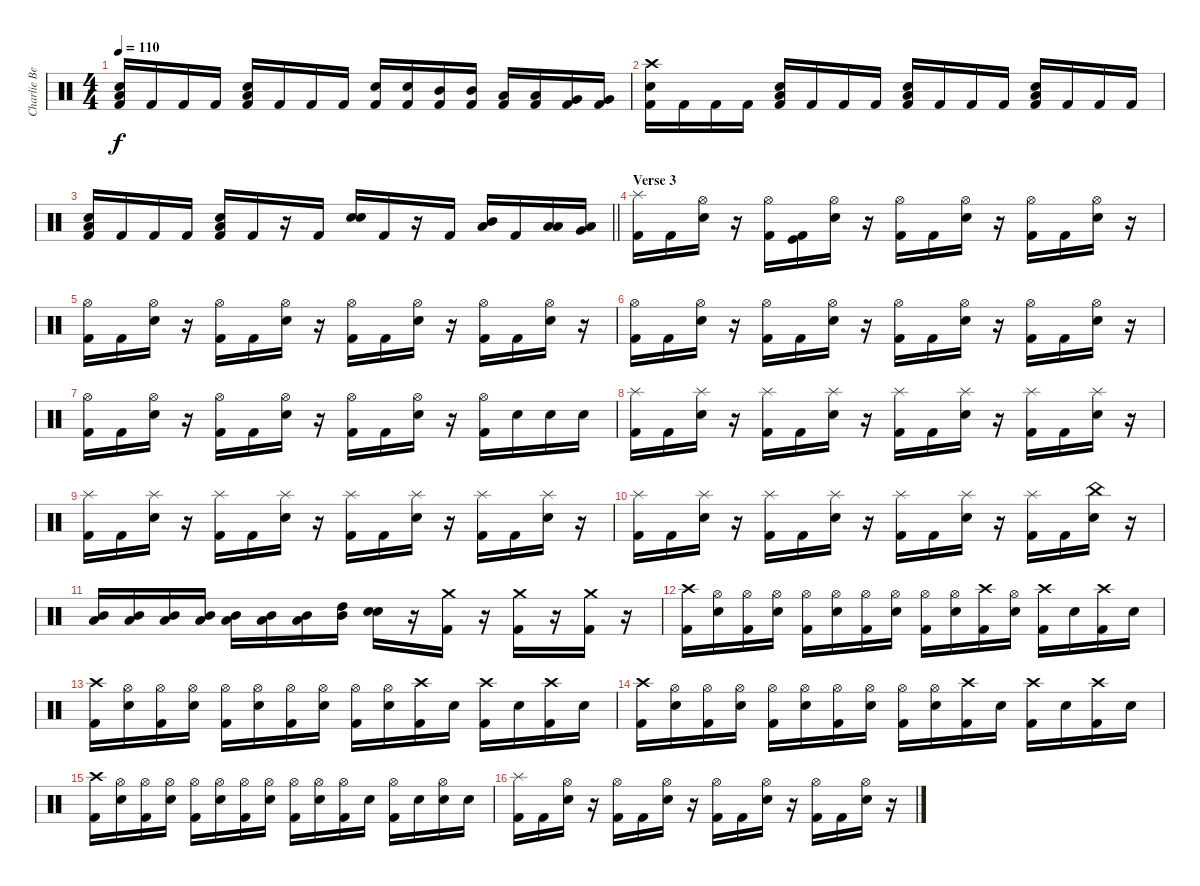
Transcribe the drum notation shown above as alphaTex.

\track ("Charlie Benante" "Charlie Be") {instrument percussion}
\staff {score}
\articulation defaults
\ts (4 4)
\tempo 110
\clef neutral
\ks c
("Low Floor Tom (hit)" "Electric Snare (hit)" "Kick (hit) 2").16{dy f} "Kick (hit) 2".16 "Kick (hit) 2".16 "Kick (hit) 2".16 ("Low Floor Tom (hit)" "Electric Snare (hit)" "Kick (hit) 2").16 "Kick (hit) 2".16 "Kick (hit) 2".16 "Kick (hit) 2".16 ("Electric Snare (hit)" "Kick (hit) 2").16 ("Electric Snare (hit)" "Kick (hit) 2").16 ("Mid Tom (hit)" "Kick (hit) 2").16 ("Mid Tom (hit)" "Kick (hit) 2").16 ("Low Tom (hit)" "Kick (hit) 2").16 ("Low Tom (hit)" "Kick (hit) 2").16 ("Very Low Tom (hit)" "Kick (hit) 2").16 ("Very Low Tom (hit)" "Kick (hit) 2").16 |
("Crash high (hit)" "Electric Snare (hit)" "Kick (hit) 2").16 "Kick (hit) 2".16 "Kick (hit) 2".16 "Kick (hit) 2".16 ("Low Floor Tom (hit)" "Electric Snare (hit)" "Kick (hit) 2").16 "Kick (hit) 2".16 "Kick (hit) 2".16 "Kick (hit) 2".16 ("Low Floor Tom (hit)" "Electric Snare (hit)" "Kick (hit) 2").16 "Kick (hit) 2".16 "Kick (hit) 2".16 "Kick (hit) 2".16 ("Low Floor Tom (hit)" "Electric Snare (hit)" "Kick (hit) 2").16 "Kick (hit) 2".16 "Kick (hit) 2".16 "Kick (hit) 2".16 |
\barLineRight lightlight
("Low Floor Tom (hit)" "Electric Snare (hit)" "Kick (hit) 2").16 "Kick (hit) 2".16 "Kick (hit) 2".16 "Kick (hit) 2".16 ("Low Floor Tom (hit)" "Electric Snare (hit)" "Kick (hit) 2").16 "Kick (hit) 2".16 r.16 "Kick (hit) 2".16 ("Electric Snare (hit)" "Snare (hit) 2").16 "Kick (hit) 2".16 r.16 "Kick (hit) 2".16 ("Mid Tom (hit)" "Low Floor Tom (hit)").16 "Kick (hit) 2".16 ("Low Tom (hit)" "Low Floor Tom (hit)").16 ("Low Floor Tom (hit)" "Very Low Tom (hit)").16 |
\section ("" "Verse 3")
("Splash (hit)" "Kick (hit) 2").16 "Kick (hit) 2".16 ("Hi-Hat (open)" "Electric Snare (hit)").16 r.16 ("Hi-Hat (open)" "Kick (hit) 2").16 ("Kick (hit)" "Kick (hit) 2").16 ("Hi-Hat (open)" "Electric Snare (hit)").16 r.16 ("Hi-Hat (open)" "Kick (hit) 2").16 "Kick (hit) 2".16 ("Hi-Hat (open)" "Electric Snare (hit)").16 r.16 ("Hi-Hat (open)" "Kick (hit) 2").16 "Kick (hit) 2".16 ("Hi-Hat (open)" "Electric Snare (hit)").16 r.16 |
("Hi-Hat (open)" "Kick (hit) 2").16 "Kick (hit) 2".16 ("Hi-Hat (open)" "Electric Snare (hit)").16 r.16 ("Hi-Hat (open)" "Kick (hit) 2").16 "Kick (hit) 2".16 ("Hi-Hat (open)" "Electric Snare (hit)").16 r.16 ("Hi-Hat (open)" "Kick (hit) 2").16 "Kick (hit) 2".16 ("Hi-Hat (open)" "Electric Snare (hit)").16 r.16 ("Hi-Hat (open)" "Kick (hit) 2").16 "Kick (hit) 2".16 ("Hi-Hat (open)" "Electric Snare (hit)").16 r.16 |
("Hi-Hat (open)" "Kick (hit) 2").16 "Kick (hit) 2".16 ("Hi-Hat (open)" "Electric Snare (hit)").16 r.16 ("Hi-Hat (open)" "Kick (hit) 2").16 "Kick (hit) 2".16 ("Hi-Hat (open)" "Electric Snare (hit)").16 r.16 ("Hi-Hat (open)" "Kick (hit) 2").16 "Kick (hit) 2".16 ("Hi-Hat (open)" "Electric Snare (hit)").16 r.16 ("Hi-Hat (open)" "Kick (hit) 2").16 "Kick (hit) 2".16 ("Hi-Hat (open)" "Electric Snare (hit)").16 r.16 |
("Hi-Hat (open)" "Kick (hit) 2").16 "Kick (hit) 2".16 ("Hi-Hat (open)" "Electric Snare (hit)").16 r.16 ("Hi-Hat (open)" "Kick (hit) 2").16 "Kick (hit) 2".16 ("Hi-Hat (open)" "Electric Snare (hit)").16 r.16 ("Hi-Hat (open)" "Kick (hit) 2").16 "Kick (hit) 2".16 ("Hi-Hat (open)" "Electric Snare (hit)").16 r.16 ("Hi-Hat (open)" "Kick (hit) 2").16 "Electric Snare (hit)".16 "Snare (hit) 2".16 "Electric Snare (hit)".16 |
("Splash (hit)" "Kick (hit) 2").16 "Kick (hit) 2".16 ("Splash (hit)" "Electric Snare (hit)").16 r.16 ("Splash (hit)" "Kick (hit) 2").16 "Kick (hit) 2".16 ("Splash (hit)" "Electric Snare (hit)").16 r.16 ("Splash (hit)" "Kick (hit) 2").16 "Kick (hit) 2".16 ("Splash (hit)" "Electric Snare (hit)").16 r.16 ("Splash (hit)" "Kick (hit) 2").16 "Kick (hit) 2".16 ("Splash (hit)" "Electric Snare (hit)").16 r.16 |
("Splash (hit)" "Kick (hit) 2").16 "Kick (hit) 2".16 ("Splash (hit)" "Electric Snare (hit)").16 r.16 ("Splash (hit)" "Kick (hit) 2").16 "Kick (hit) 2".16 ("Splash (hit)" "Electric Snare (hit)").16 r.16 ("Splash (hit)" "Kick (hit) 2").16 "Kick (hit) 2".16 ("Splash (hit)" "Electric Snare (hit)").16 r.16 ("Splash (hit)" "Kick (hit) 2").16 "Kick (hit) 2".16 ("Splash (hit)" "Electric Snare (hit)").16 r.16 |
("Splash (hit)" "Kick (hit) 2").16 "Kick (hit) 2".16 ("Splash (hit)" "Electric Snare (hit)").16 r.16 ("Splash (hit)" "Kick (hit) 2").16 "Kick (hit) 2".16 ("Splash (hit)" "Electric Snare (hit)").16 r.16 ("Splash (hit)" "Kick (hit) 2").16 "Kick (hit) 2".16 ("Splash (hit)" "Electric Snare (hit)").16 r.16 ("Splash (hit)" "Kick (hit) 2").16 "Kick (hit) 2".16 ("China (hit)" "Electric Snare (hit)").16 r.16 |
("Low Tom (hit)" "Mid Tom (hit)").16 ("Low Tom (hit)" "Mid Tom (hit)").16 ("Low Tom (hit)" "Mid Tom (hit)").16 ("Low Tom (hit)" "Mid Tom (hit)").16 ("Low Tom (hit)" "Mid Tom (hit)").16 ("Low Tom (hit)" "Mid Tom (hit)").16 ("Low Tom (hit)" "Mid Tom (hit)").16 ("Mid Tom (hit)" "High Tom (hit)").16 ("Electric Snare (hit)" "Snare (hit) 2").16 r.16 ("Crash medium (hit)" "Kick (hit) 2").16 r.16 ("Crash medium (hit)" "Kick (hit) 2").16 r.16 ("Crash medium (hit)" "Kick (hit) 2").16 r.16 |
("Crash high (hit)" "Kick (hit) 2").16 ("Hi-Hat (open)" "Electric Snare (hit)").16 ("Hi-Hat (open)" "Kick (hit) 2").16 ("Hi-Hat (open)" "Electric Snare (hit)").16 ("Hi-Hat (open)" "Kick (hit) 2").16 ("Hi-Hat (open)" "Electric Snare (hit)").16 ("Hi-Hat (open)" "Kick (hit) 2").16 ("Hi-Hat (open)" "Electric Snare (hit)").16 ("Hi-Hat (open)" "Kick (hit) 2").16 ("Hi-Hat (open)" "Electric Snare (hit)").16 ("Crash high (hit)" "Kick (hit) 2").16 ("Hi-Hat (open)" "Electric Snare (hit)").16 ("Crash high (hit)" "Kick (hit) 2").16 "Electric Snare (hit)".16 ("Crash high (hit)" "Kick (hit) 2").16 "Electric Snare (hit)".16 |
("Crash high (hit)" "Kick (hit) 2").16 ("Hi-Hat (open)" "Electric Snare (hit)").16 ("Hi-Hat (open)" "Kick (hit) 2").16 ("Hi-Hat (open)" "Electric Snare (hit)").16 ("Hi-Hat (open)" "Kick (hit) 2").16 ("Hi-Hat (open)" "Electric Snare (hit)").16 ("Hi-Hat (open)" "Kick (hit) 2").16 ("Hi-Hat (open)" "Electric Snare (hit)").16 ("Hi-Hat (open)" "Kick (hit) 2").16 ("Hi-Hat (open)" "Electric Snare (hit)").16 ("Crash high (hit)" "Kick (hit) 2").16 "Electric Snare (hit)".16 ("Crash high (hit)" "Kick (hit) 2").16 "Electric Snare (hit)".16 ("Crash high (hit)" "Kick (hit) 2").16 "Electric Snare (hit)".16 |
("Crash high (hit)" "Kick (hit) 2").16 ("Hi-Hat (open)" "Electric Snare (hit)").16 ("Hi-Hat (open)" "Kick (hit) 2").16 ("Hi-Hat (open)" "Electric Snare (hit)").16 ("Hi-Hat (open)" "Kick (hit) 2").16 ("Hi-Hat (open)" "Electric Snare (hit)").16 ("Hi-Hat (open)" "Kick (hit) 2").16 ("Hi-Hat (open)" "Electric Snare (hit)").16 ("Hi-Hat (open)" "Kick (hit) 2").16 ("Hi-Hat (open)" "Electric Snare (hit)").16 ("Crash high (hit)" "Kick (hit) 2").16 "Electric Snare (hit)".16 ("Crash high (hit)" "Kick (hit) 2").16 "Electric Snare (hit)".16 ("Crash high (hit)" "Kick (hit) 2").16 "Electric Snare (hit)".16 |
("Crash high (hit)" "Kick (hit) 2").16 ("Hi-Hat (open)" "Electric Snare (hit)").16 ("Hi-Hat (open)" "Kick (hit) 2").16 ("Hi-Hat (open)" "Electric Snare (hit)").16 ("Hi-Hat (open)" "Kick (hit) 2").16 ("Hi-Hat (open)" "Electric Snare (hit)").16 ("Hi-Hat (open)" "Kick (hit) 2").16 ("Hi-Hat (open)" "Electric Snare (hit)").16 ("Hi-Hat (open)" "Kick (hit) 2").16 ("Hi-Hat (open)" "Electric Snare (hit)").16 ("Hi-Hat (open)" "Kick (hit) 2").16 "Electric Snare (hit)".16 ("Hi-Hat (open)" "Kick (hit) 2").16 "Electric Snare (hit)".16 ("Hi-Hat (open)" "Electric Snare (hit)").16 "Electric Snare (hit)".16 |
("Splash (hit)" "Kick (hit) 2").16 "Kick (hit) 2".16 ("Hi-Hat (open)" "Electric Snare (hit)").16 r.16 ("Hi-Hat (open)" "Kick (hit) 2").16 "Kick (hit) 2".16 ("Hi-Hat (open)" "Electric Snare (hit)").16 r.16 ("Hi-Hat (open)" "Kick (hit) 2").16 "Kick (hit) 2".16 ("Hi-Hat (open)" "Electric Snare (hit)").16 r.16 ("Hi-Hat (open)" "Kick (hit) 2").16 "Kick (hit) 2".16 ("Hi-Hat (open)" "Electric Snare (hit)").16 r.16
